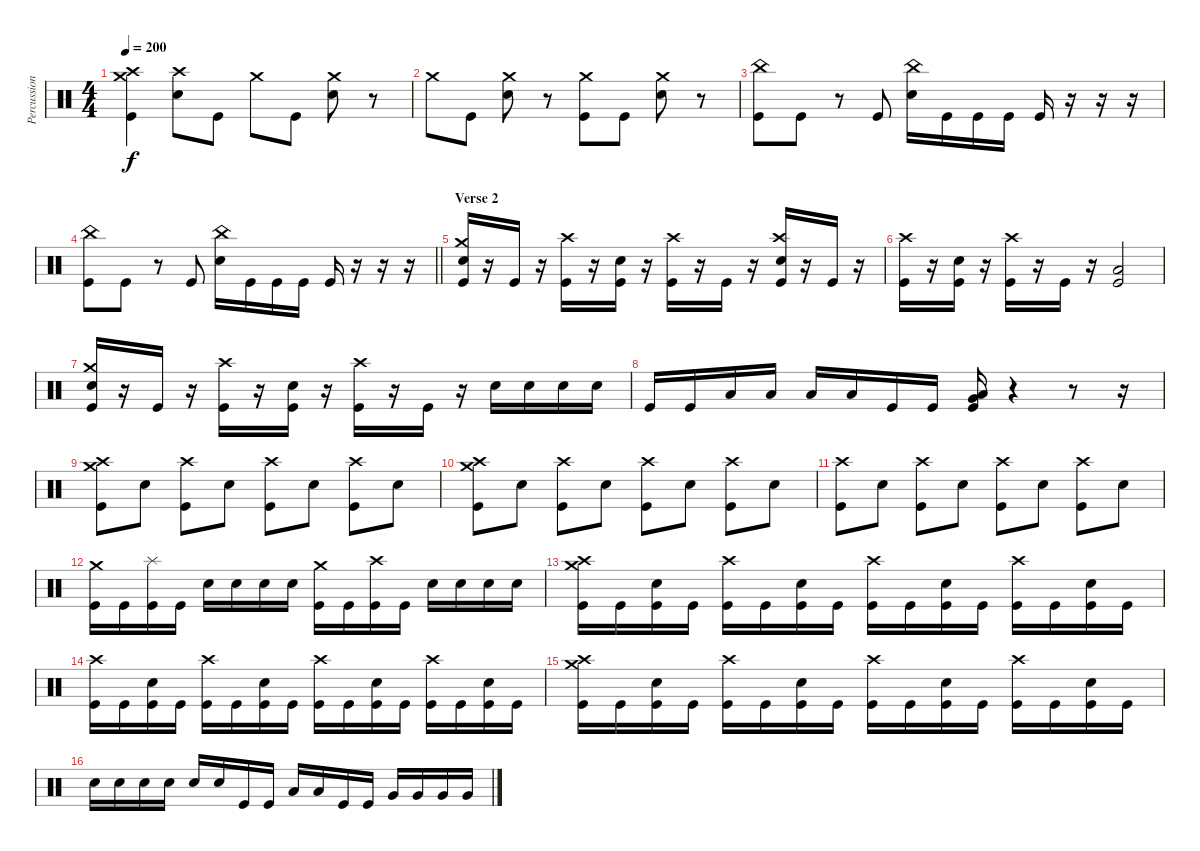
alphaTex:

\track ("Percussion" "Percussion") {instrument percussion}
\staff {score}
\articulation defaults
\ts (4 4)
\tempo 200
\clef neutral
\ks c
("Kick (hit)" "Crash medium (hit)" "Crash high (hit)").4{dy f} ("Snare (hit) 2" "Crash high (hit)").8 "Kick (hit)".8 "Crash medium (hit)".8 "Kick (hit)".8 ("Crash medium (hit)" "Snare (hit) 2").8 r.8 |
"Crash medium (hit)".8 "Kick (hit)".8 ("Crash medium (hit)" "Snare (hit) 2").8 r.8 ("Kick (hit)" "Crash medium (hit)").8 "Kick (hit)".8 ("Snare (hit) 2" "Crash medium (hit)").8 r.8 |
("China (hit)" "Kick (hit)").8 "Kick (hit)".8 r.8 "Kick (hit)".8 ("Snare (hit) 2" "China (hit)").16 "Kick (hit)".16 "Kick (hit)".16 "Kick (hit)".16 "Kick (hit)".16 r.16 r.16 r.16 |
\barLineRight lightlight
("China (hit)" "Kick (hit)").8 "Kick (hit)".8 r.8 "Kick (hit)".8 ("Snare (hit) 2" "China (hit)").16 "Kick (hit)".16 "Kick (hit)".16 "Kick (hit)".16 "Kick (hit)".16 r.16 r.16 r.16 |
\section ("" "Verse 2")
("Crash medium (hit)" "Snare (hit) 2" "Kick (hit)").16 r.16 "Kick (hit)".16 r.16 ("Crash high (hit)" "Kick (hit)").16 r.16 ("Snare (hit) 2" "Kick (hit)").16 r.16 ("Crash high (hit)" "Kick (hit)").16 r.16 "Kick (hit)".16 r.16 ("Crash high (hit)" "Snare (hit) 2" "Kick (hit)").16 r.16 "Kick (hit)".16 r.16 |
("Crash high (hit)" "Kick (hit)").16 r.16 ("Snare (hit) 2" "Kick (hit)").16 r.16 ("Crash high (hit)" "Kick (hit)").16 r.16 "Kick (hit)".16 r.16 ("Kick (hit)" "Low Floor Tom (hit)").2 |
("Crash medium (hit)" "Snare (hit) 2" "Kick (hit)").16 r.16 "Kick (hit)".16 r.16 ("Crash high (hit)" "Kick (hit)").16 r.16 ("Snare (hit) 2" "Kick (hit)").16 r.16 ("Crash high (hit)" "Kick (hit)").16 r.16 "Kick (hit)".16 r.16 "Snare (hit) 2".16 "Snare (hit) 2".16 "Snare (hit) 2".16 "Snare (hit) 2".16 |
"Kick (hit)".16 "Kick (hit)".16 "Low Tom (hit)".16 "Low Tom (hit)".16 "Low Tom (hit)".16 "Low Tom (hit)".16 "Kick (hit)".16 "Kick (hit)".16 ("Kick (hit)" "Low Floor Tom (hit)" "Very Low Tom (hit)").16 r.4 r.8 r.16 |
("Crash high (hit)" "Kick (hit)" "Crash medium (hit)").8 "Snare (hit) 2".8 ("Crash high (hit)" "Kick (hit)").8 "Snare (hit) 2".8 ("Crash high (hit)" "Kick (hit)").8 "Snare (hit) 2".8 ("Crash high (hit)" "Kick (hit)").8 "Snare (hit) 2".8 |
("Crash high (hit)" "Crash medium (hit)" "Kick (hit)").8 "Snare (hit) 2".8 ("Crash high (hit)" "Kick (hit)").8 "Snare (hit) 2".8 ("Crash high (hit)" "Kick (hit)").8 "Snare (hit) 2".8 ("Crash high (hit)" "Kick (hit)").8 "Snare (hit) 2".8 |
("Crash high (hit)" "Kick (hit)").8 "Snare (hit) 2".8 ("Crash high (hit)" "Kick (hit)").8 "Snare (hit) 2".8 ("Crash high (hit)" "Kick (hit)").8 "Snare (hit) 2".8 ("Crash high (hit)" "Kick (hit)").8 "Snare (hit) 2".8 |
("Crash medium (hit)" "Kick (hit)").16 "Kick (hit)".16 ("Splash (hit)" "Kick (hit)").16 "Kick (hit)".16 "Snare (hit) 2".16 "Snare (hit) 2".16 "Snare (hit) 2".16 "Snare (hit) 2".16 ("Crash medium (hit)" "Kick (hit)").16 "Kick (hit)".16 ("Crash high (hit)" "Kick (hit)").16 "Kick (hit)".16 "Snare (hit) 2".16 "Snare (hit) 2".16 "Snare (hit) 2".16 "Snare (hit) 2".16 |
("Crash high (hit)" "Kick (hit)" "Crash medium (hit)").16 "Kick (hit)".16 ("Snare (hit) 2" "Kick (hit)").16 "Kick (hit)".16 ("Crash high (hit)" "Kick (hit)").16 "Kick (hit)".16 ("Snare (hit) 2" "Kick (hit)").16 "Kick (hit)".16 ("Crash high (hit)" "Kick (hit)").16 "Kick (hit)".16 ("Snare (hit) 2" "Kick (hit)").16 "Kick (hit)".16 ("Crash high (hit)" "Kick (hit)").16 "Kick (hit)".16 ("Snare (hit) 2" "Kick (hit)").16 "Kick (hit)".16 |
("Crash high (hit)" "Kick (hit)").16 "Kick (hit)".16 ("Snare (hit) 2" "Kick (hit)").16 "Kick (hit)".16 ("Crash high (hit)" "Kick (hit)").16 "Kick (hit)".16 ("Snare (hit) 2" "Kick (hit)").16 "Kick (hit)".16 ("Crash high (hit)" "Kick (hit)").16 "Kick (hit)".16 ("Snare (hit) 2" "Kick (hit)").16 "Kick (hit)".16 ("Crash high (hit)" "Kick (hit)").16 "Kick (hit)".16 ("Snare (hit) 2" "Kick (hit)").16 "Kick (hit)".16 |
("Crash high (hit)" "Kick (hit)" "Crash medium (hit)").16 "Kick (hit)".16 ("Snare (hit) 2" "Kick (hit)").16 "Kick (hit)".16 ("Crash high (hit)" "Kick (hit)").16 "Kick (hit)".16 ("Snare (hit) 2" "Kick (hit)").16 "Kick (hit)".16 ("Crash high (hit)" "Kick (hit)").16 "Kick (hit)".16 ("Snare (hit) 2" "Kick (hit)").16 "Kick (hit)".16 ("Crash high (hit)" "Kick (hit)").16 "Kick (hit)".16 ("Snare (hit) 2" "Kick (hit)").16 "Kick (hit)".16 |
"Snare (hit) 2".16 "Snare (hit) 2".16 "Snare (hit) 2".16 "Snare (hit) 2".16 "Snare (hit) 2".16 "Snare (hit) 2".16 "Kick (hit)".16 "Kick (hit)".16 "Low Tom (hit)".16 "Low Tom (hit)".16 "Kick (hit)".16 "Kick (hit)".16 "Very Low Tom (hit)".16 "Very Low Tom (hit)".16 "Very Low Tom (hit)".16 "Very Low Tom (hit)".16
